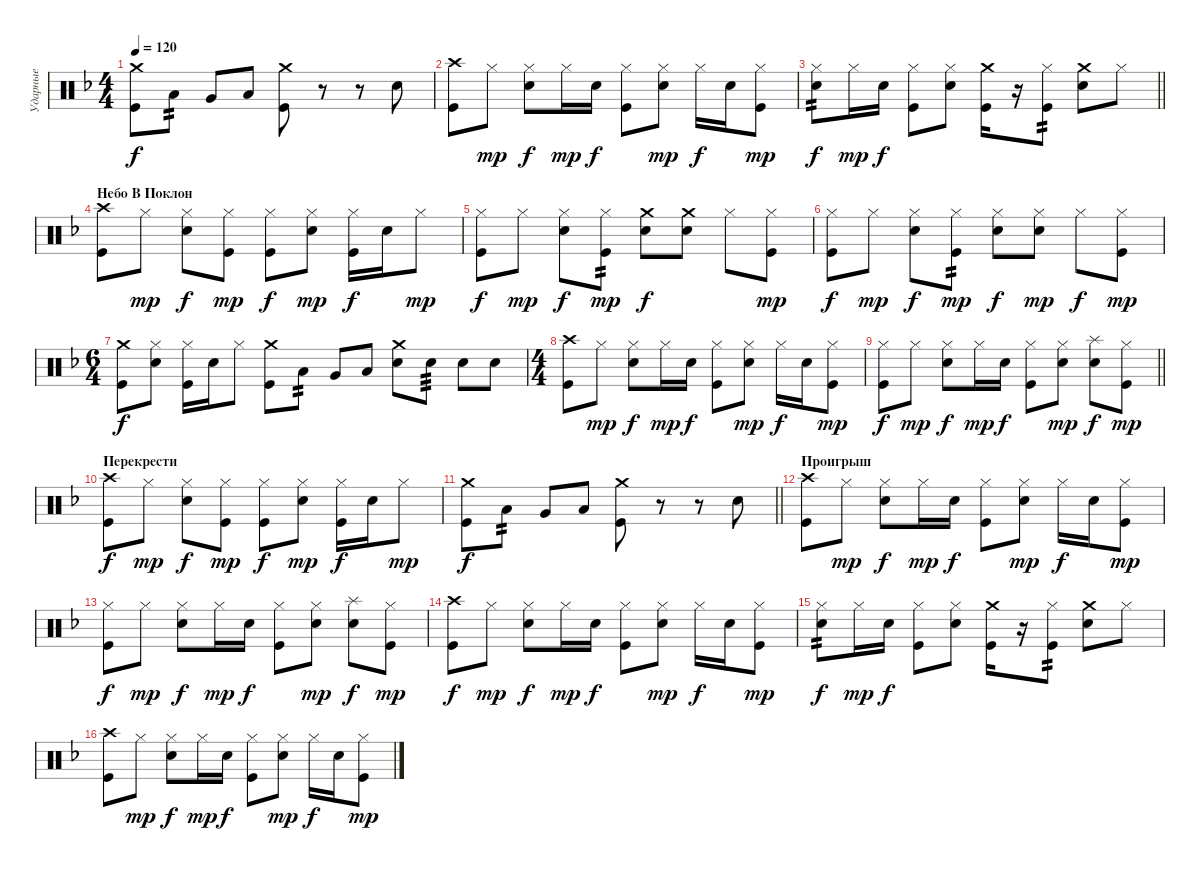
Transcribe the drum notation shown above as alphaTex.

\track ("Ударные" "Ударные") {instrument percussion}
\staff {score}
\articulation defaults
\ts (4 4)
\tempo 120
\clef neutral
\ks dminor
("Crash medium (hit)" "Kick (hit)").8{dy f} "Low Tom (hit)".8{tp 2} "Very Low Tom (hit)".8 "Low Floor Tom (hit)".8 ("Crash medium (hit)" "Kick (hit)").8 r.8 r.8 "Snare (hit) 2".8 |
("Crash high (hit)" "Kick (hit)").8 "Hi-Hat (closed)".8{dy mp} ("Hi-Hat (closed)" "Snare (hit) 2").8{dy f} "Hi-Hat (closed)".16{dy mp} "Snare (hit) 2".16{dy f} ("Hi-Hat (closed)" "Kick (hit)").8 ("Hi-Hat (closed)" "Snare (hit) 2").8{dy mp} "Hi-Hat (closed)".16{dy f} "Snare (hit) 2".16 ("Hi-Hat (closed)" "Kick (hit)").8{dy mp} |
\barLineRight lightlight
("Hi-Hat (closed)" "Snare (hit) 2").8{tp 2 dy f} "Hi-Hat (closed)".16{dy mp} "Snare (hit) 2".16{dy f} ("Hi-Hat (closed)" "Kick (hit)").8 ("Hi-Hat (closed)" "Snare (hit) 2").8 ("Crash medium (hit)" "Kick (hit)").16 r.16 ("Hi-Hat (closed)" "Kick (hit)").8{tp 2} ("Crash medium (hit)" "Snare (hit) 2").8 "Hi-Hat (closed)".8 |
\section ("" "Небо В Поклон")
("Crash high (hit)" "Kick (hit)").8 "Hi-Hat (closed)".8{dy mp} ("Hi-Hat (closed)" "Snare (hit) 2").8{dy f} ("Hi-Hat (closed)" "Kick (hit)").8{dy mp} ("Hi-Hat (closed)" "Kick (hit)").8{dy f} ("Hi-Hat (closed)" "Snare (hit) 2").8{dy mp} ("Hi-Hat (closed)" "Kick (hit)").16{dy f} "Snare (hit) 2".16 "Hi-Hat (closed)".8{dy mp} |
("Hi-Hat (closed)" "Kick (hit)").8{dy f} "Hi-Hat (closed)".8{dy mp} ("Hi-Hat (closed)" "Snare (hit) 2").8{dy f} ("Hi-Hat (closed)" "Kick (hit)").8{tp 2 dy mp} ("Crash medium (hit)" "Snare (hit) 2").8{dy f} ("Crash medium (hit)" "Snare (hit) 2").8 "Hi-Hat (closed)".8 ("Hi-Hat (closed)" "Kick (hit)").8{dy mp} |
("Hi-Hat (closed)" "Kick (hit)").8{dy f} "Hi-Hat (closed)".8{dy mp} ("Hi-Hat (closed)" "Snare (hit) 2").8{dy f} ("Hi-Hat (closed)" "Kick (hit)").8{tp 2 dy mp} ("Hi-Hat (closed)" "Snare (hit) 2").8{dy f} ("Hi-Hat (closed)" "Snare (hit) 2").8{dy mp} "Hi-Hat (closed)".8{dy f} ("Hi-Hat (closed)" "Kick (hit)").8{dy mp} |
\ts (6 4)
("Crash medium (hit)" "Kick (hit)").8{dy f} ("Hi-Hat (closed)" "Snare (hit) 2").8 ("Hi-Hat (closed)" "Kick (hit)").16 "Snare (hit) 2".16 "Hi-Hat (closed)".8 ("Crash medium (hit)" "Kick (hit)").8 "Low Tom (hit)".8{tp 2} "Very Low Tom (hit)".8 "Low Floor Tom (hit)".8 ("Crash medium (hit)" "Snare (hit) 2").8 "Snare (hit) 2".8{tp 3} "Snare (hit) 2".8 "Snare (hit) 2".8 |
\ts (4 4)
("Crash high (hit)" "Kick (hit)").8 "Hi-Hat (closed)".8{dy mp} ("Hi-Hat (closed)" "Snare (hit) 2").8{dy f} "Hi-Hat (closed)".16{dy mp} "Snare (hit) 2".16{dy f} ("Hi-Hat (closed)" "Kick (hit)").8 ("Hi-Hat (closed)" "Snare (hit) 2").8{dy mp} "Hi-Hat (closed)".16{dy f} "Snare (hit) 2".16 ("Hi-Hat (closed)" "Kick (hit)").8{dy mp} |
\barLineRight lightlight
("Hi-Hat (closed)" "Kick (hit)").8{dy f} "Hi-Hat (closed)".8{dy mp} ("Hi-Hat (closed)" "Snare (hit) 2").8{dy f} "Hi-Hat (closed)".16{dy mp} "Snare (hit) 2".16{dy f} ("Hi-Hat (closed)" "Kick (hit)").8 ("Hi-Hat (closed)" "Snare (hit) 2").8{dy mp} ("Splash (hit)" "Snare (hit) 2").8{dy f} ("Hi-Hat (closed)" "Kick (hit)").8{dy mp} |
\section ("" "Перекрести")
("Crash high (hit)" "Kick (hit)").8{dy f} "Hi-Hat (closed)".8{dy mp} ("Hi-Hat (closed)" "Snare (hit) 2").8{dy f} ("Hi-Hat (closed)" "Kick (hit)").8{dy mp} ("Hi-Hat (closed)" "Kick (hit)").8{dy f} ("Hi-Hat (closed)" "Snare (hit) 2").8{dy mp} ("Hi-Hat (closed)" "Kick (hit)").16{dy f} "Snare (hit) 2".16 "Hi-Hat (closed)".8{dy mp} |
\barLineRight lightlight
("Crash medium (hit)" "Kick (hit)").8{dy f} "Low Tom (hit)".8{tp 2} "Very Low Tom (hit)".8 "Low Floor Tom (hit)".8 ("Crash medium (hit)" "Kick (hit)").8 r.8 r.8 "Snare (hit) 2".8 |
\section ("" "Проигрыш")
("Crash high (hit)" "Kick (hit)").8 "Hi-Hat (closed)".8{dy mp} ("Hi-Hat (closed)" "Snare (hit) 2").8{dy f} "Hi-Hat (closed)".16{dy mp} "Snare (hit) 2".16{dy f} ("Hi-Hat (closed)" "Kick (hit)").8 ("Hi-Hat (closed)" "Snare (hit) 2").8{dy mp} "Hi-Hat (closed)".16{dy f} "Snare (hit) 2".16 ("Hi-Hat (closed)" "Kick (hit)").8{dy mp} |
("Hi-Hat (closed)" "Kick (hit)").8{dy f} "Hi-Hat (closed)".8{dy mp} ("Hi-Hat (closed)" "Snare (hit) 2").8{dy f} "Hi-Hat (closed)".16{dy mp} "Snare (hit) 2".16{dy f} ("Hi-Hat (closed)" "Kick (hit)").8 ("Hi-Hat (closed)" "Snare (hit) 2").8{dy mp} ("Splash (hit)" "Snare (hit) 2").8{dy f} ("Hi-Hat (closed)" "Kick (hit)").8{dy mp} |
("Crash high (hit)" "Kick (hit)").8{dy f} "Hi-Hat (closed)".8{dy mp} ("Hi-Hat (closed)" "Snare (hit) 2").8{dy f} "Hi-Hat (closed)".16{dy mp} "Snare (hit) 2".16{dy f} ("Hi-Hat (closed)" "Kick (hit)").8 ("Hi-Hat (closed)" "Snare (hit) 2").8{dy mp} "Hi-Hat (closed)".16{dy f} "Snare (hit) 2".16 ("Hi-Hat (closed)" "Kick (hit)").8{dy mp} |
("Hi-Hat (closed)" "Snare (hit) 2").8{tp 2 dy f} "Hi-Hat (closed)".16{dy mp} "Snare (hit) 2".16{dy f} ("Hi-Hat (closed)" "Kick (hit)").8 ("Hi-Hat (closed)" "Snare (hit) 2").8 ("Crash medium (hit)" "Kick (hit)").16 r.16 ("Hi-Hat (closed)" "Kick (hit)").8{tp 2} ("Crash medium (hit)" "Snare (hit) 2").8 "Hi-Hat (closed)".8 |
("Crash high (hit)" "Kick (hit)").8 "Hi-Hat (closed)".8{dy mp} ("Hi-Hat (closed)" "Snare (hit) 2").8{dy f} "Hi-Hat (closed)".16{dy mp} "Snare (hit) 2".16{dy f} ("Hi-Hat (closed)" "Kick (hit)").8 ("Hi-Hat (closed)" "Snare (hit) 2").8{dy mp} "Hi-Hat (closed)".16{dy f} "Snare (hit) 2".16 ("Hi-Hat (closed)" "Kick (hit)").8{dy mp}
